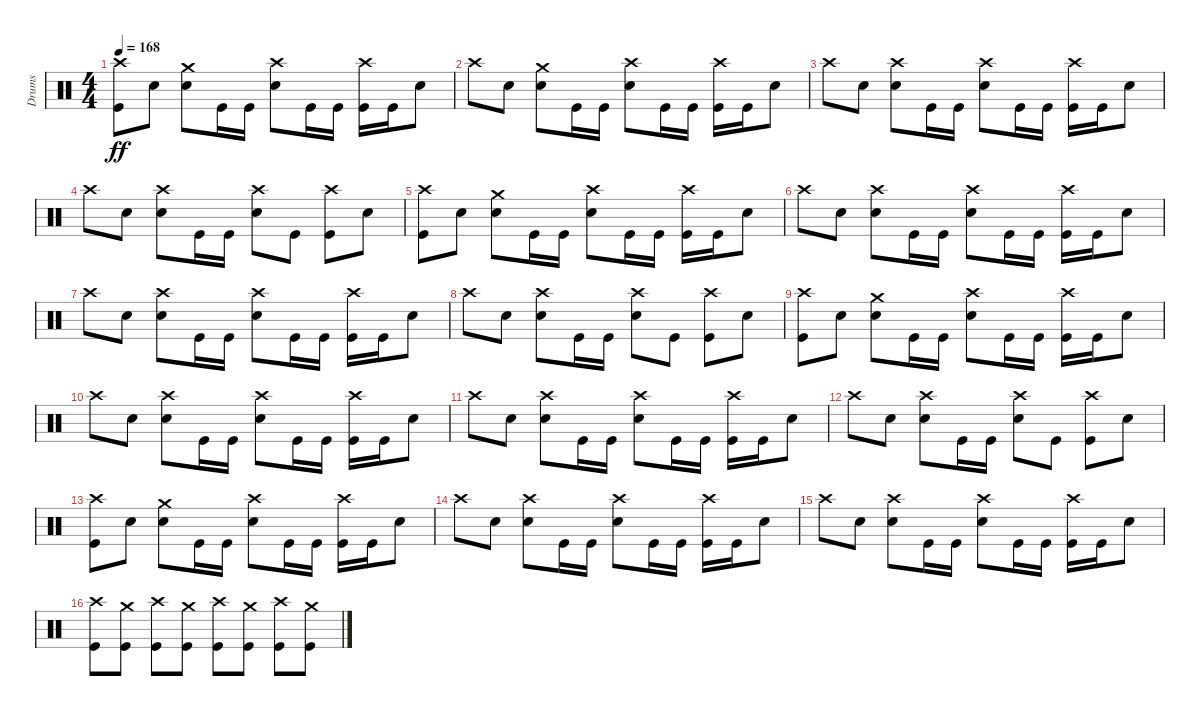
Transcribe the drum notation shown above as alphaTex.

\track ("Drums" "Drums") {instrument percussion}
\staff {score}
\articulation defaults
\ts (4 4)
\tempo 168
\clef neutral
\ks c
("Crash high (hit)" "Kick (hit)").8{dy ff} "Snare (hit) 2".8 ("Crash medium (hit)" "Snare (hit) 2").8 "Kick (hit)".16 "Kick (hit)".16 ("Crash high (hit)" "Snare (hit) 2").8 "Kick (hit)".16 "Kick (hit)".16 ("Crash high (hit)" "Kick (hit)").16 "Kick (hit)".16 "Snare (hit) 2".8 |
"Crash high (hit)".8 "Snare (hit) 2".8 ("Crash medium (hit)" "Snare (hit) 2").8 "Kick (hit)".16 "Kick (hit)".16 ("Crash high (hit)" "Snare (hit) 2").8 "Kick (hit)".16 "Kick (hit)".16 ("Crash high (hit)" "Kick (hit)").16 "Kick (hit)".16 "Snare (hit) 2".8 |
"Crash high (hit)".8 "Snare (hit) 2".8 ("Crash high (hit)" "Snare (hit) 2").8 "Kick (hit)".16 "Kick (hit)".16 ("Crash high (hit)" "Snare (hit) 2").8 "Kick (hit)".16 "Kick (hit)".16 ("Crash high (hit)" "Kick (hit)").16 "Kick (hit)".16 "Snare (hit) 2".8 |
"Crash high (hit)".8 "Snare (hit) 2".8 ("Crash high (hit)" "Snare (hit) 2").8 "Kick (hit)".16 "Kick (hit)".16 ("Crash high (hit)" "Snare (hit) 2").8 "Kick (hit)".8 ("Crash high (hit)" "Kick (hit)").8 "Snare (hit) 2".8 |
("Crash high (hit)" "Kick (hit)").8 "Snare (hit) 2".8 ("Crash medium (hit)" "Snare (hit) 2").8 "Kick (hit)".16 "Kick (hit)".16 ("Crash high (hit)" "Snare (hit) 2").8 "Kick (hit)".16 "Kick (hit)".16 ("Crash high (hit)" "Kick (hit)").16 "Kick (hit)".16 "Snare (hit) 2".8 |
"Crash high (hit)".8 "Snare (hit) 2".8 ("Crash high (hit)" "Snare (hit) 2").8 "Kick (hit)".16 "Kick (hit)".16 ("Crash high (hit)" "Snare (hit) 2").8 "Kick (hit)".16 "Kick (hit)".16 ("Crash high (hit)" "Kick (hit)").16 "Kick (hit)".16 "Snare (hit) 2".8 |
"Crash high (hit)".8 "Snare (hit) 2".8 ("Crash high (hit)" "Snare (hit) 2").8 "Kick (hit)".16 "Kick (hit)".16 ("Crash high (hit)" "Snare (hit) 2").8 "Kick (hit)".16 "Kick (hit)".16 ("Crash high (hit)" "Kick (hit)").16 "Kick (hit)".16 "Snare (hit) 2".8 |
"Crash high (hit)".8 "Snare (hit) 2".8 ("Crash high (hit)" "Snare (hit) 2").8 "Kick (hit)".16 "Kick (hit)".16 ("Crash high (hit)" "Snare (hit) 2").8 "Kick (hit)".8 ("Crash high (hit)" "Kick (hit)").8 "Snare (hit) 2".8 |
("Crash high (hit)" "Kick (hit)").8 "Snare (hit) 2".8 ("Crash medium (hit)" "Snare (hit) 2").8 "Kick (hit)".16 "Kick (hit)".16 ("Crash high (hit)" "Snare (hit) 2").8 "Kick (hit)".16 "Kick (hit)".16 ("Crash high (hit)" "Kick (hit)").16 "Kick (hit)".16 "Snare (hit) 2".8 |
"Crash high (hit)".8 "Snare (hit) 2".8 ("Crash high (hit)" "Snare (hit) 2").8 "Kick (hit)".16 "Kick (hit)".16 ("Crash high (hit)" "Snare (hit) 2").8 "Kick (hit)".16 "Kick (hit)".16 ("Crash high (hit)" "Kick (hit)").16 "Kick (hit)".16 "Snare (hit) 2".8 |
"Crash high (hit)".8 "Snare (hit) 2".8 ("Crash high (hit)" "Snare (hit) 2").8 "Kick (hit)".16 "Kick (hit)".16 ("Crash high (hit)" "Snare (hit) 2").8 "Kick (hit)".16 "Kick (hit)".16 ("Crash high (hit)" "Kick (hit)").16 "Kick (hit)".16 "Snare (hit) 2".8 |
"Crash high (hit)".8 "Snare (hit) 2".8 ("Crash high (hit)" "Snare (hit) 2").8 "Kick (hit)".16 "Kick (hit)".16 ("Crash high (hit)" "Snare (hit) 2").8 "Kick (hit)".8 ("Crash high (hit)" "Kick (hit)").8 "Snare (hit) 2".8 |
("Crash high (hit)" "Kick (hit)").8 "Snare (hit) 2".8 ("Crash medium (hit)" "Snare (hit) 2").8 "Kick (hit)".16 "Kick (hit)".16 ("Crash high (hit)" "Snare (hit) 2").8 "Kick (hit)".16 "Kick (hit)".16 ("Crash high (hit)" "Kick (hit)").16 "Kick (hit)".16 "Snare (hit) 2".8 |
"Crash high (hit)".8 "Snare (hit) 2".8 ("Crash high (hit)" "Snare (hit) 2").8 "Kick (hit)".16 "Kick (hit)".16 ("Crash high (hit)" "Snare (hit) 2").8 "Kick (hit)".16 "Kick (hit)".16 ("Crash high (hit)" "Kick (hit)").16 "Kick (hit)".16 "Snare (hit) 2".8 |
"Crash high (hit)".8 "Snare (hit) 2".8 ("Crash high (hit)" "Snare (hit) 2").8 "Kick (hit)".16 "Kick (hit)".16 ("Crash high (hit)" "Snare (hit) 2").8 "Kick (hit)".16 "Kick (hit)".16 ("Crash high (hit)" "Kick (hit)").16 "Kick (hit)".16 "Snare (hit) 2".8 |
("Crash high (hit)" "Kick (hit)").8 ("Crash medium (hit)" "Kick (hit)").8 ("Crash high (hit)" "Kick (hit)").8 ("Crash medium (hit)" "Kick (hit)").8 ("Crash high (hit)" "Kick (hit)").8 ("Crash medium (hit)" "Kick (hit)").8 ("Crash high (hit)" "Kick (hit)").8 ("Crash medium (hit)" "Kick (hit)").8
